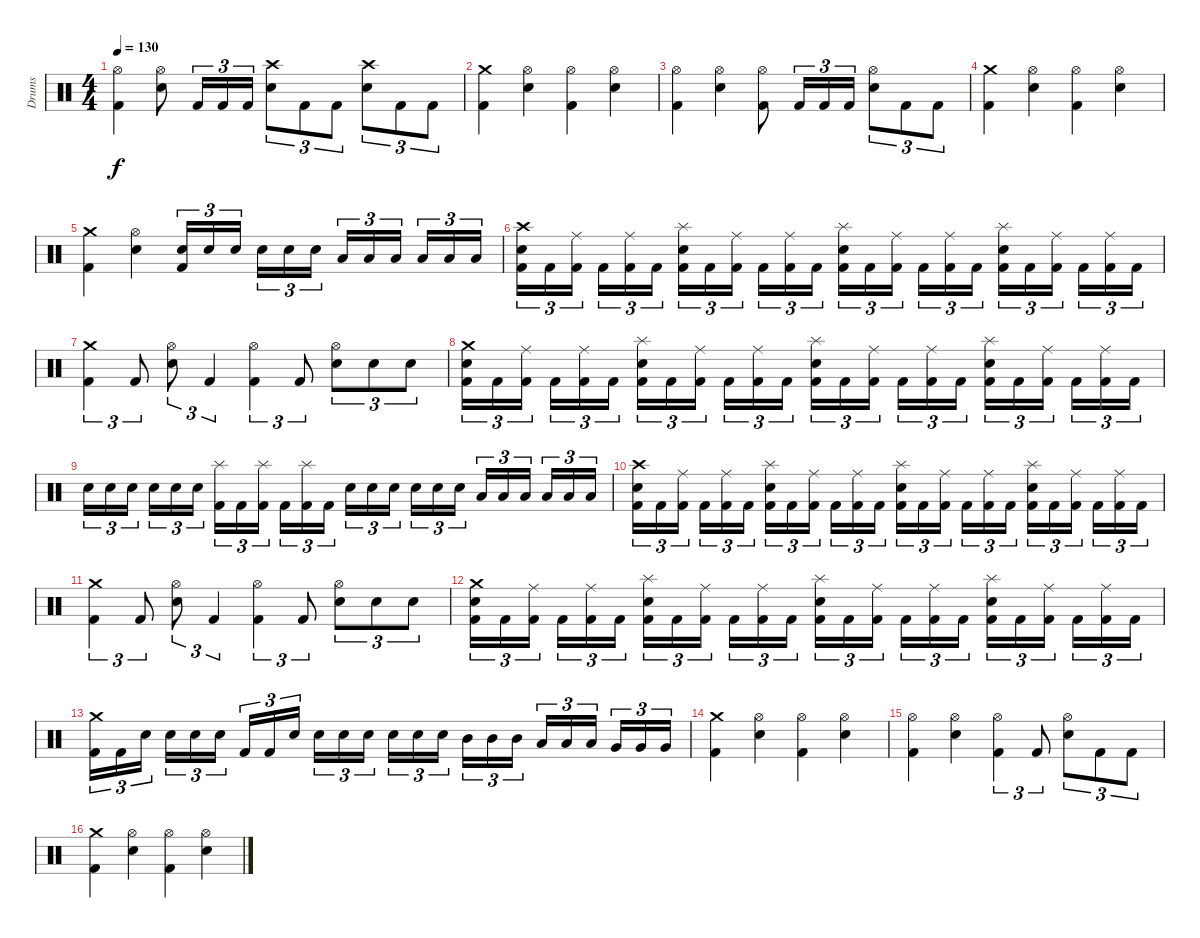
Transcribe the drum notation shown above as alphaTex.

\track ("Drums" "Drums") {instrument percussion}
\staff {score}
\articulation defaults
\ts (4 4)
\tempo 130
\clef neutral
\ks c
("Kick (hit) 2" "Hi-Hat (open)").4{dy f} ("Electric Snare (hit)" "Hi-Hat (open)").8 "Kick (hit) 2".16{tu (3 2)} "Kick (hit) 2".16{tu (3 2)} "Kick (hit) 2".16{tu (3 2)} ("Electric Snare (hit)" "Crash high (hit)").8{tu (3 2)} "Kick (hit) 2".8{tu (3 2)} "Kick (hit) 2".8{tu (3 2)} ("Electric Snare (hit)" "Crash high (hit)").8{tu (3 2)} "Kick (hit) 2".8{tu (3 2)} "Kick (hit) 2".8{tu (3 2)} |
("Kick (hit) 2" "Crash medium (hit)").4 ("Electric Snare (hit)" "Hi-Hat (open)").4 ("Kick (hit) 2" "Hi-Hat (open)").4 ("Electric Snare (hit)" "Hi-Hat (open)").4 |
("Kick (hit) 2" "Hi-Hat (open)").4 ("Electric Snare (hit)" "Hi-Hat (open)").4 ("Kick (hit) 2" "Hi-Hat (open)").8 "Kick (hit) 2".16{tu (3 2)} "Kick (hit) 2".16{tu (3 2)} "Kick (hit) 2".16{tu (3 2)} ("Electric Snare (hit)" "Hi-Hat (open)").8{tu (3 2)} "Kick (hit) 2".8{tu (3 2)} "Kick (hit) 2".8{tu (3 2)} |
("Kick (hit) 2" "Crash medium (hit)").4 ("Electric Snare (hit)" "Hi-Hat (open)").4 ("Kick (hit) 2" "Hi-Hat (open)").4 ("Electric Snare (hit)" "Hi-Hat (open)").4 |
("Kick (hit) 2" "Crash medium (hit)").4 ("Electric Snare (hit)" "Hi-Hat (open)").4 ("Kick (hit) 2" "Electric Snare (hit)").16{tu (3 2)} "Electric Snare (hit)".16{tu (3 2)} "Electric Snare (hit)".16{tu (3 2)} "Electric Snare (hit)".16{tu (3 2)} "Electric Snare (hit)".16{tu (3 2)} "Electric Snare (hit)".16{tu (3 2)} "Low Tom (hit)".16{tu (3 2)} "Low Tom (hit)".16{tu (3 2)} "Low Tom (hit)".16{tu (3 2)} "Low Tom (hit)".16{tu (3 2)} "Low Tom (hit)".16{tu (3 2)} "Low Tom (hit)".16{tu (3 2)} |
("Kick (hit) 2" "Electric Snare (hit)" "Crash high (hit)").16{tu (3 2)} "Kick (hit) 2".16{tu (3 2)} ("Kick (hit) 2" "Ride (middle)").16{tu (3 2)} "Kick (hit) 2".16{tu (3 2)} ("Kick (hit) 2" "Ride (middle)").16{tu (3 2)} "Kick (hit) 2".16{tu (3 2)} ("Kick (hit) 2" "Electric Snare (hit)" "Splash (hit)").16{tu (3 2)} "Kick (hit) 2".16{tu (3 2)} ("Kick (hit) 2" "Ride (middle)").16{tu (3 2)} "Kick (hit) 2".16{tu (3 2)} ("Kick (hit) 2" "Ride (middle)").16{tu (3 2)} "Kick (hit) 2".16{tu (3 2)} ("Kick (hit) 2" "Electric Snare (hit)" "Splash (hit)").16{tu (3 2)} "Kick (hit) 2".16{tu (3 2)} ("Kick (hit) 2" "Ride (middle)").16{tu (3 2)} "Kick (hit) 2".16{tu (3 2)} ("Kick (hit) 2" "Ride (middle)").16{tu (3 2)} "Kick (hit) 2".16{tu (3 2)} ("Kick (hit) 2" "Electric Snare (hit)" "Splash (hit)").16{tu (3 2)} "Kick (hit) 2".16{tu (3 2)} ("Kick (hit) 2" "Ride (middle)").16{tu (3 2)} "Kick (hit) 2".16{tu (3 2)} ("Kick (hit) 2" "Ride (middle)").16{tu (3 2)} "Kick (hit) 2".16{tu (3 2)} |
("Kick (hit) 2" "Crash medium (hit)").4{tu (3 2)} "Kick (hit) 2".8{tu (3 2)} ("Electric Snare (hit)" "Hi-Hat (open)").8{tu (3 2)} "Kick (hit) 2".4{tu (3 2)} ("Kick (hit) 2" "Hi-Hat (open)").4{tu (3 2)} "Kick (hit) 2".8{tu (3 2)} ("Electric Snare (hit)" "Hi-Hat (open)").8{tu (3 2)} "Electric Snare (hit)".8{tu (3 2)} "Electric Snare (hit)".8{tu (3 2)} |
("Kick (hit) 2" "Electric Snare (hit)" "Crash medium (hit)").16{tu (3 2)} "Kick (hit) 2".16{tu (3 2)} ("Kick (hit) 2" "Ride (middle)").16{tu (3 2)} "Kick (hit) 2".16{tu (3 2)} ("Kick (hit) 2" "Ride (middle)").16{tu (3 2)} "Kick (hit) 2".16{tu (3 2)} ("Kick (hit) 2" "Electric Snare (hit)" "Splash (hit)").16{tu (3 2)} "Kick (hit) 2".16{tu (3 2)} ("Kick (hit) 2" "Ride (middle)").16{tu (3 2)} "Kick (hit) 2".16{tu (3 2)} ("Kick (hit) 2" "Ride (middle)").16{tu (3 2)} "Kick (hit) 2".16{tu (3 2)} ("Kick (hit) 2" "Electric Snare (hit)" "Splash (hit)").16{tu (3 2)} "Kick (hit) 2".16{tu (3 2)} ("Kick (hit) 2" "Ride (middle)").16{tu (3 2)} "Kick (hit) 2".16{tu (3 2)} ("Kick (hit) 2" "Ride (middle)").16{tu (3 2)} "Kick (hit) 2".16{tu (3 2)} ("Kick (hit) 2" "Electric Snare (hit)" "Splash (hit)").16{tu (3 2)} "Kick (hit) 2".16{tu (3 2)} ("Kick (hit) 2" "Ride (middle)").16{tu (3 2)} "Kick (hit) 2".16{tu (3 2)} ("Kick (hit) 2" "Ride (middle)").16{tu (3 2)} "Kick (hit) 2".16{tu (3 2)} |
"Electric Snare (hit)".16{tu (3 2)} "Electric Snare (hit)".16{tu (3 2)} "Electric Snare (hit)".16{tu (3 2)} "Electric Snare (hit)".16{tu (3 2)} "Electric Snare (hit)".16{tu (3 2)} "Electric Snare (hit)".16{tu (3 2)} ("Kick (hit) 2" "Splash (hit)").16{tu (3 2)} "Kick (hit) 2".16{tu (3 2)} ("Kick (hit) 2" "Splash (hit)").16{tu (3 2)} "Kick (hit) 2".16{tu (3 2)} ("Kick (hit) 2" "Splash (hit)").16{tu (3 2)} "Kick (hit) 2".16{tu (3 2)} "Electric Snare (hit)".16{tu (3 2)} "Electric Snare (hit)".16{tu (3 2)} "Electric Snare (hit)".16{tu (3 2)} "Electric Snare (hit)".16{tu (3 2)} "Electric Snare (hit)".16{tu (3 2)} "Electric Snare (hit)".16{tu (3 2)} "Low Tom (hit)".16{tu (3 2)} "Low Tom (hit)".16{tu (3 2)} "Low Tom (hit)".16{tu (3 2)} "Low Tom (hit)".16{tu (3 2)} "Low Tom (hit)".16{tu (3 2)} "Low Tom (hit)".16{tu (3 2)} |
("Kick (hit) 2" "Electric Snare (hit)" "Crash high (hit)").16{tu (3 2)} "Kick (hit) 2".16{tu (3 2)} ("Kick (hit) 2" "Ride (middle)").16{tu (3 2)} "Kick (hit) 2".16{tu (3 2)} ("Kick (hit) 2" "Ride (middle)").16{tu (3 2)} "Kick (hit) 2".16{tu (3 2)} ("Kick (hit) 2" "Electric Snare (hit)" "Splash (hit)").16{tu (3 2)} "Kick (hit) 2".16{tu (3 2)} ("Kick (hit) 2" "Ride (middle)").16{tu (3 2)} "Kick (hit) 2".16{tu (3 2)} ("Kick (hit) 2" "Ride (middle)").16{tu (3 2)} "Kick (hit) 2".16{tu (3 2)} ("Kick (hit) 2" "Electric Snare (hit)" "Splash (hit)").16{tu (3 2)} "Kick (hit) 2".16{tu (3 2)} ("Kick (hit) 2" "Ride (middle)").16{tu (3 2)} "Kick (hit) 2".16{tu (3 2)} ("Kick (hit) 2" "Ride (middle)").16{tu (3 2)} "Kick (hit) 2".16{tu (3 2)} ("Kick (hit) 2" "Electric Snare (hit)" "Splash (hit)").16{tu (3 2)} "Kick (hit) 2".16{tu (3 2)} ("Kick (hit) 2" "Ride (middle)").16{tu (3 2)} "Kick (hit) 2".16{tu (3 2)} ("Kick (hit) 2" "Ride (middle)").16{tu (3 2)} "Kick (hit) 2".16{tu (3 2)} |
("Kick (hit) 2" "Crash medium (hit)").4{tu (3 2)} "Kick (hit) 2".8{tu (3 2)} ("Electric Snare (hit)" "Hi-Hat (open)").8{tu (3 2)} "Kick (hit) 2".4{tu (3 2)} ("Kick (hit) 2" "Hi-Hat (open)").4{tu (3 2)} "Kick (hit) 2".8{tu (3 2)} ("Electric Snare (hit)" "Hi-Hat (open)").8{tu (3 2)} "Electric Snare (hit)".8{tu (3 2)} "Electric Snare (hit)".8{tu (3 2)} |
("Kick (hit) 2" "Electric Snare (hit)" "Crash medium (hit)").16{tu (3 2)} "Kick (hit) 2".16{tu (3 2)} ("Kick (hit) 2" "Ride (middle)").16{tu (3 2)} "Kick (hit) 2".16{tu (3 2)} ("Kick (hit) 2" "Ride (middle)").16{tu (3 2)} "Kick (hit) 2".16{tu (3 2)} ("Kick (hit) 2" "Electric Snare (hit)" "Splash (hit)").16{tu (3 2)} "Kick (hit) 2".16{tu (3 2)} ("Kick (hit) 2" "Ride (middle)").16{tu (3 2)} "Kick (hit) 2".16{tu (3 2)} ("Kick (hit) 2" "Ride (middle)").16{tu (3 2)} "Kick (hit) 2".16{tu (3 2)} ("Kick (hit) 2" "Electric Snare (hit)" "Splash (hit)").16{tu (3 2)} "Kick (hit) 2".16{tu (3 2)} ("Kick (hit) 2" "Ride (middle)").16{tu (3 2)} "Kick (hit) 2".16{tu (3 2)} ("Kick (hit) 2" "Ride (middle)").16{tu (3 2)} "Kick (hit) 2".16{tu (3 2)} ("Kick (hit) 2" "Electric Snare (hit)" "Splash (hit)").16{tu (3 2)} "Kick (hit) 2".16{tu (3 2)} ("Kick (hit) 2" "Ride (middle)").16{tu (3 2)} "Kick (hit) 2".16{tu (3 2)} ("Kick (hit) 2" "Ride (middle)").16{tu (3 2)} "Kick (hit) 2".16{tu (3 2)} |
("Kick (hit) 2" "Crash medium (hit)").16{tu (3 2)} "Kick (hit) 2".16{tu (3 2)} "Electric Snare (hit)".16{tu (3 2)} "Electric Snare (hit)".16{tu (3 2)} "Electric Snare (hit)".16{tu (3 2)} "Electric Snare (hit)".16{tu (3 2)} "Kick (hit) 2".16{tu (3 2)} "Kick (hit) 2".16{tu (3 2)} "Electric Snare (hit)".16{tu (3 2)} "Electric Snare (hit)".16{tu (3 2)} "Electric Snare (hit)".16{tu (3 2)} "Electric Snare (hit)".16{tu (3 2)} "Electric Snare (hit)".16{tu (3 2)} "Electric Snare (hit)".16{tu (3 2)} "Electric Snare (hit)".16{tu (3 2)} "Mid Tom (hit)".16{tu (3 2)} "Mid Tom (hit)".16{tu (3 2)} "Mid Tom (hit)".16{tu (3 2)} "Low Tom (hit)".16{tu (3 2)} "Low Tom (hit)".16{tu (3 2)} "Low Tom (hit)".16{tu (3 2)} "Very Low Tom (hit)".16{tu (3 2)} "Very Low Tom (hit)".16{tu (3 2)} "Very Low Tom (hit)".16{tu (3 2)} |
("Kick (hit) 2" "Crash medium (hit)").4 ("Electric Snare (hit)" "Hi-Hat (open)").4 ("Kick (hit) 2" "Hi-Hat (open)").4 ("Electric Snare (hit)" "Hi-Hat (open)").4 |
("Kick (hit) 2" "Hi-Hat (open)").4 ("Electric Snare (hit)" "Hi-Hat (open)").4 ("Kick (hit) 2" "Hi-Hat (open)").4{tu (3 2)} "Kick (hit) 2".8{tu (3 2)} ("Electric Snare (hit)" "Hi-Hat (open)").8{tu (3 2)} "Kick (hit) 2".8{tu (3 2)} "Kick (hit) 2".8{tu (3 2)} |
("Kick (hit) 2" "Crash medium (hit)").4 ("Electric Snare (hit)" "Hi-Hat (open)").4 ("Kick (hit) 2" "Hi-Hat (open)").4 ("Electric Snare (hit)" "Hi-Hat (open)").4
